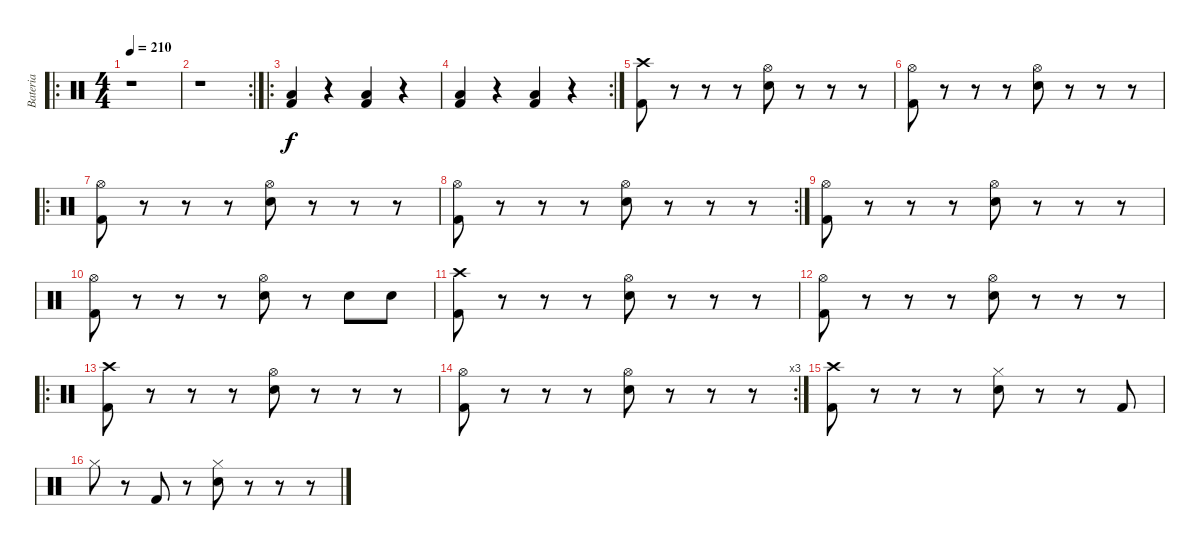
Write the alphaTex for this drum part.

\track ("Bateria" "Bateria") {instrument percussion}
\staff {score}
\articulation defaults
\ro
\ts (4 4)
\tempo 210
\clef neutral
\ks c
r.1{dy f} |
\rc 2
r.1 |
\ro
("Low Tom (hit)" "Kick (hit) 2").4 r.4 ("Low Tom (hit)" "Kick (hit) 2").4 r.4 |
\rc 2
("Low Tom (hit)" "Kick (hit) 2").4 r.4 ("Low Tom (hit)" "Kick (hit) 2").4 r.4 |
("Crash high (hit)" "Kick (hit) 2").8 r.8 r.8 r.8 ("Hi-Hat (open)" "Snare (hit) 2").8 r.8 r.8 r.8 |
("Hi-Hat (open)" "Kick (hit) 2").8 r.8 r.8 r.8 ("Hi-Hat (open)" "Snare (hit) 2").8 r.8 r.8 r.8 |
\ro
("Hi-Hat (open)" "Kick (hit) 2").8 r.8 r.8 r.8 ("Hi-Hat (open)" "Snare (hit) 2").8 r.8 r.8 r.8 |
\rc 2
("Hi-Hat (open)" "Kick (hit) 2").8 r.8 r.8 r.8 ("Hi-Hat (open)" "Snare (hit) 2").8 r.8 r.8 r.8 |
("Hi-Hat (open)" "Kick (hit) 2").8 r.8 r.8 r.8 ("Hi-Hat (open)" "Snare (hit) 2").8 r.8 r.8 r.8 |
("Hi-Hat (open)" "Kick (hit) 2").8 r.8 r.8 r.8 ("Hi-Hat (open)" "Snare (hit) 2").8 r.8 "Snare (hit) 2".8 "Snare (hit) 2".8 |
("Crash high (hit)" "Kick (hit) 2").8 r.8 r.8 r.8 ("Hi-Hat (open)" "Snare (hit) 2").8 r.8 r.8 r.8 |
("Hi-Hat (open)" "Kick (hit) 2").8 r.8 r.8 r.8 ("Hi-Hat (open)" "Snare (hit) 2").8 r.8 r.8 r.8 |
\ro
("Crash high (hit)" "Kick (hit) 2").8 r.8 r.8 r.8 ("Hi-Hat (open)" "Snare (hit) 2").8 r.8 r.8 r.8 |
\rc 3
("Hi-Hat (open)" "Kick (hit) 2").8 r.8 r.8 r.8 ("Hi-Hat (open)" "Snare (hit) 2").8 r.8 r.8 r.8 |
("Crash high (hit)" "Kick (hit) 2").8 r.8 r.8 r.8 ("Hi-Hat (closed)" "Snare (hit) 2").8 r.8 r.8 "Kick (hit) 2".8 |
"Hi-Hat (closed)".8 r.8 "Kick (hit) 2".8 r.8 ("Hi-Hat (closed)" "Snare (hit) 2").8 r.8 r.8 r.8
